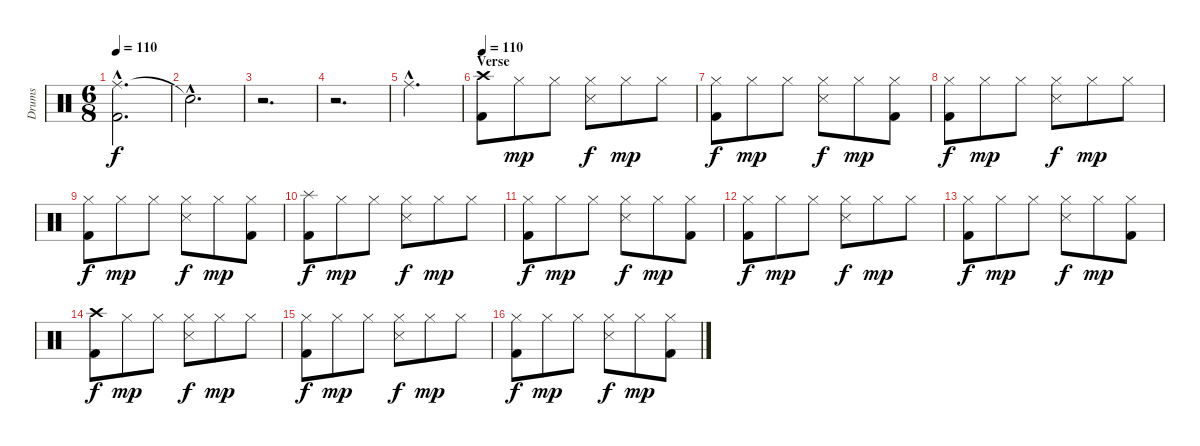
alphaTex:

\track ("Drums" "Drums") {instrument percussion}
\staff {score}
\articulation defaults
\ts (6 8)
\tempo 110
\clef neutral
\ks c
("Ride (middle)"{hac} "Kick (hit) 2"{hac}).2{d dy f} |
"Snare (hit)"{hac t}.2{d} |
r.2{d} |
r.2{d} |
"Ride (middle)"{hac}.2{d} |
\section ("" "Verse")
\tempo 110
("Crash high (hit)" "Kick (hit) 2").8 "Hi-Hat (closed)".8{dy mp} "Hi-Hat (closed)".8 ("Hi-Hat (closed)" "Snare (side stick) 3").8{dy f} "Hi-Hat (closed)".8{dy mp} "Hi-Hat (closed)".8 |
("Hi-Hat (closed)" "Kick (hit) 2").8{dy f} "Hi-Hat (closed)".8{dy mp} "Hi-Hat (closed)".8 ("Hi-Hat (closed)" "Snare (side stick) 3").8{dy f} "Hi-Hat (closed)".8{dy mp} ("Hi-Hat (closed)" "Kick (hit) 2").8 |
("Hi-Hat (closed)" "Kick (hit) 2").8{dy f} "Hi-Hat (closed)".8{dy mp} "Hi-Hat (closed)".8 ("Hi-Hat (closed)" "Snare (side stick) 3").8{dy f} "Hi-Hat (closed)".8{dy mp} "Hi-Hat (closed)".8 |
("Hi-Hat (closed)" "Kick (hit) 2").8{dy f} "Hi-Hat (closed)".8{dy mp} "Hi-Hat (closed)".8 ("Hi-Hat (closed)" "Snare (side stick) 3").8{dy f} "Hi-Hat (closed)".8{dy mp} ("Hi-Hat (closed)" "Kick (hit) 2").8 |
("Splash (hit)" "Kick (hit) 2").8{dy f} "Hi-Hat (closed)".8{dy mp} "Hi-Hat (closed)".8 ("Hi-Hat (closed)" "Snare (side stick) 3").8{dy f} "Hi-Hat (closed)".8{dy mp} "Hi-Hat (closed)".8 |
("Hi-Hat (closed)" "Kick (hit) 2").8{dy f} "Hi-Hat (closed)".8{dy mp} "Hi-Hat (closed)".8 ("Hi-Hat (closed)" "Snare (side stick) 3").8{dy f} "Hi-Hat (closed)".8{dy mp} ("Hi-Hat (closed)" "Kick (hit) 2").8 |
("Hi-Hat (closed)" "Kick (hit) 2").8{dy f} "Hi-Hat (closed)".8{dy mp} "Hi-Hat (closed)".8 ("Hi-Hat (closed)" "Snare (side stick) 3").8{dy f} "Hi-Hat (closed)".8{dy mp} "Hi-Hat (closed)".8 |
("Hi-Hat (closed)" "Kick (hit) 2").8{dy f} "Hi-Hat (closed)".8{dy mp} "Hi-Hat (closed)".8 ("Hi-Hat (closed)" "Snare (side stick) 3").8{dy f} "Hi-Hat (closed)".8{dy mp} ("Hi-Hat (closed)" "Kick (hit) 2").8 |
("Crash high (hit)" "Kick (hit) 2").8{dy f} "Hi-Hat (closed)".8{dy mp} "Hi-Hat (closed)".8 ("Hi-Hat (closed)" "Snare (side stick) 3").8{dy f} "Hi-Hat (closed)".8{dy mp} "Hi-Hat (closed)".8 |
("Hi-Hat (closed)" "Kick (hit) 2").8{dy f} "Hi-Hat (closed)".8{dy mp} "Hi-Hat (closed)".8 ("Hi-Hat (closed)" "Snare (side stick) 3").8{dy f} "Hi-Hat (closed)".8{dy mp} "Hi-Hat (closed)".8 |
("Hi-Hat (closed)" "Kick (hit) 2").8{dy f} "Hi-Hat (closed)".8{dy mp} "Hi-Hat (closed)".8 ("Hi-Hat (closed)" "Snare (side stick) 3").8{dy f} "Hi-Hat (closed)".8{dy mp} ("Hi-Hat (closed)" "Kick (hit) 2").8
